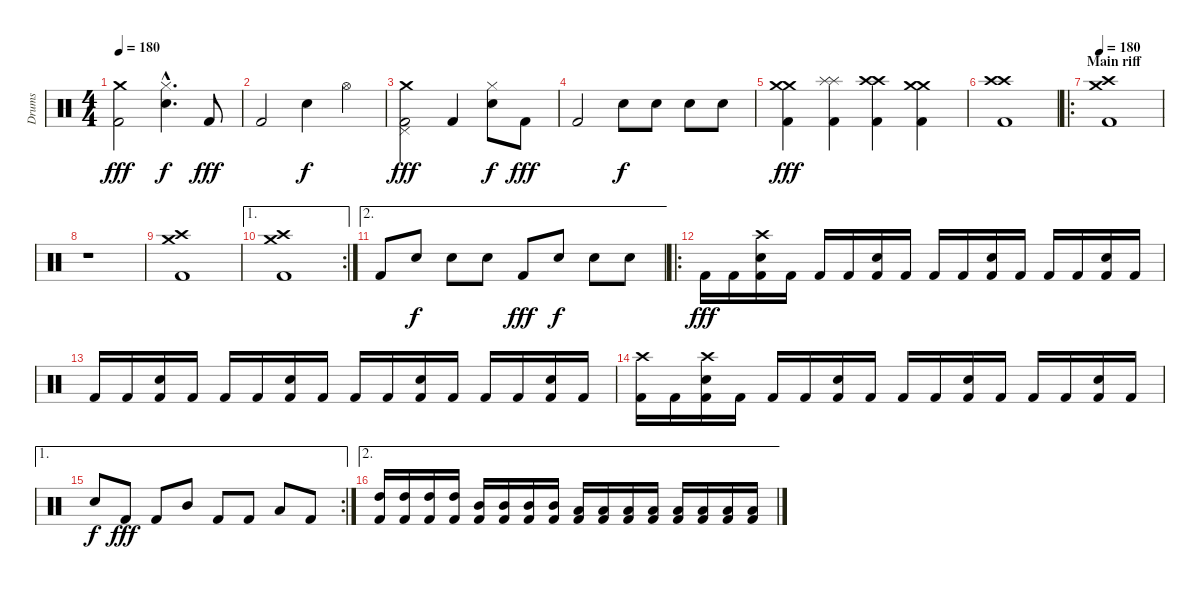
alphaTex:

\track ("Drums" "Drums") {instrument percussion}
\staff {score}
\articulation defaults
\ts (4 4)
\tempo 180
\clef neutral
\ks c
("Crash medium (hit)" "Kick (hit) 2").2{dy fff volume 14} ("Hi-Hat (closed)"{hac} "Snare (hit) 2"{hac}).4{d dy f} "Kick (hit) 2".8{dy fff} |
"Kick (hit) 2".2 "Snare (hit) 2".4{dy f} "Hi-Hat (open)".4 |
("Crash medium (hit)" "Pedal Hi-Hat (hit)" "Kick (hit) 2").2{dy fff} "Kick (hit) 2".4 ("Hi-Hat (closed)" "Snare (hit) 2").8{dy f} "Kick (hit) 2".8{dy fff} |
"Kick (hit) 2".2 "Snare (hit) 2".8{dy f} "Snare (hit) 2".8 "Snare (hit) 2".8 "Snare (hit) 2".8 |
("Crash medium (hit)" "Crash medium (hit)" "Kick (hit) 2").4{dy fff} ("Splash (hit)" "Splash (hit)" "Kick (hit) 2").4 ("Crash high (hit)" "Crash high (hit)" "Kick (hit) 2").4 ("Crash medium (hit)" "Crash medium (hit)" "Kick (hit) 2").4 |
("Crash high (hit)" "Crash high (hit)" "Kick (hit) 2").1 |
\ro
\section ("" "Main riff")
\tempo 180
("Crash medium (hit)" "Crash high (hit)" "Kick (hit) 2").1 |
r.1 |
("Crash medium (hit)" "Crash high (hit)" "Kick (hit) 2").1 |
\ae 1
\rc 2
("Crash medium (hit)" "Crash high (hit)" "Kick (hit) 2").1 |
\ae 2 "Kick (hit) 2".8 "Snare (hit) 2".8{dy f} "Snare (hit) 2".8 "Snare (hit) 2".8 "Kick (hit) 2".8{dy fff} "Snare (hit) 2".8{dy f} "Snare (hit) 2".8 "Snare (hit) 2".8
|
\ro "Kick (hit) 2".16{dy fff} "Kick (hit) 2".16
("Crash high (hit)" "Snare (hit) 2" "Kick (hit) 2").16 "Kick (hit) 2".16 "Kick (hit) 2".16 "Kick (hit) 2".16 ("Snare (hit) 2" "Kick (hit) 2").16 "Kick (hit) 2".16 "Kick (hit) 2".16 "Kick (hit) 2".16 ("Snare (hit) 2" "Kick (hit) 2").16 "Kick (hit) 2".16 "Kick (hit) 2".16 "Kick (hit) 2".16 ("Snare (hit) 2" "Kick (hit) 2").16 "Kick (hit) 2".16 |
"Kick (hit) 2".16 "Kick (hit) 2".16 ("Snare (hit) 2" "Kick (hit) 2").16 "Kick (hit) 2".16 "Kick (hit) 2".16 "Kick (hit) 2".16 ("Snare (hit) 2" "Kick (hit) 2").16 "Kick (hit) 2".16 "Kick (hit) 2".16 "Kick (hit) 2".16 ("Snare (hit) 2" "Kick (hit) 2").16 "Kick (hit) 2".16 "Kick (hit) 2".16 "Kick (hit) 2".16 ("Snare (hit) 2" "Kick (hit) 2").16 "Kick (hit) 2".16 |
("Crash high (hit)" "Kick (hit) 2").16 "Kick (hit) 2".16 ("Crash high (hit)" "Snare (hit) 2" "Kick (hit) 2").16 "Kick (hit) 2".16 "Kick (hit) 2".16 "Kick (hit) 2".16 ("Snare (hit) 2" "Kick (hit) 2").16 "Kick (hit) 2".16 "Kick (hit) 2".16 "Kick (hit) 2".16 ("Snare (hit) 2" "Kick (hit) 2").16 "Kick (hit) 2".16 "Kick (hit) 2".16 "Kick (hit) 2".16 ("Snare (hit) 2" "Kick (hit) 2").16 "Kick (hit) 2".16 |
\ae 1
\rc 2 "Snare (hit) 2".8{dy f} "Kick (hit) 2".8{dy fff} "Kick (hit) 2".8 "Mid Tom (hit)".8 "Kick (hit) 2".8 "Kick (hit) 2".8 "Low Tom (hit)".8 "Kick (hit) 2".8
|
\ae 2
("High Tom (hit)" "Kick (hit) 2").16 ("High Tom (hit)" "Kick (hit) 2").16 ("High Tom (hit)" "Kick (hit) 2").16 ("High Tom (hit)" "Kick (hit) 2").16 ("Mid Tom (hit)" "Kick (hit) 2").16 ("Mid Tom (hit)" "Kick (hit) 2").16 ("Mid Tom (hit)" "Kick (hit) 2").16 ("Mid Tom (hit)" "Kick (hit) 2").16 ("Low Tom (hit)" "Kick (hit) 2").16 ("Low Tom (hit)" "Kick (hit) 2").16 ("Low Tom (hit)" "Kick (hit) 2").16 ("Low Tom (hit)" "Kick (hit) 2").16 ("Low Floor Tom (hit)" "Kick (hit) 2").16 ("Low Floor Tom (hit)" "Kick (hit) 2").16 ("Low Floor Tom (hit)" "Kick (hit) 2").16 ("Low Floor Tom (hit)" "Kick (hit) 2").16
